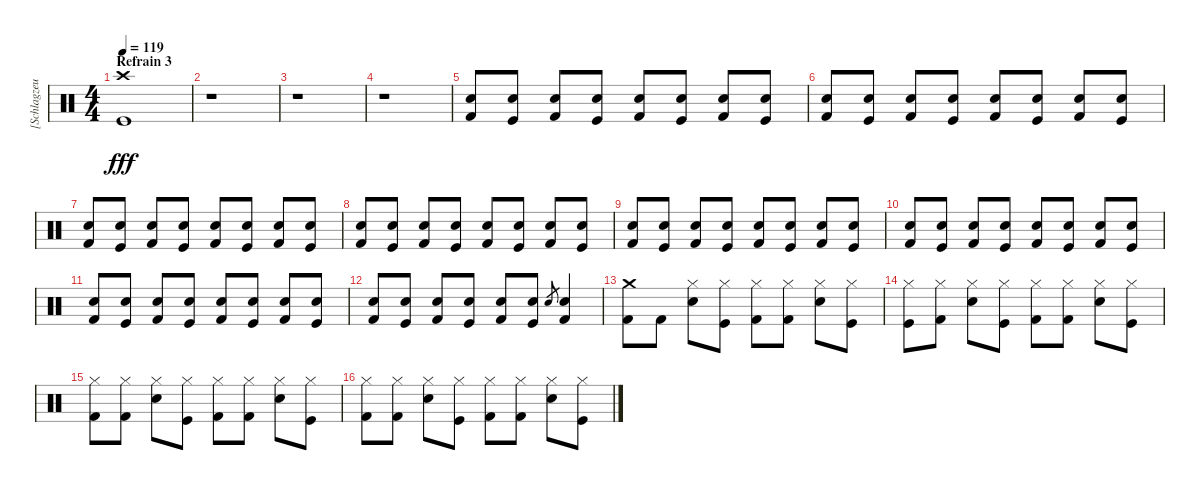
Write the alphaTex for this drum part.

\track ("[Schlagzeug]" "[Schlagzeu") {instrument percussion}
\staff {score}
\articulation defaults
\ts (4 4)
\section ("" "Refrain 3")
\tempo 119
\clef neutral
\ks c
("Crash high (hit)" "Kick (hit)").1{dy fff} |
r.1 |
r.1 |
r.1 |
("Electric Snare (hit)" "Kick (hit) 2").8{volume 2} ("Electric Snare (hit)" "Kick (hit)").8{volume 8} ("Electric Snare (hit)" "Kick (hit) 2").8 ("Electric Snare (hit)" "Kick (hit)").8 ("Electric Snare (hit)" "Kick (hit) 2").8 ("Electric Snare (hit)" "Kick (hit)").8 ("Electric Snare (hit)" "Kick (hit) 2").8 ("Electric Snare (hit)" "Kick (hit)").8 |
("Electric Snare (hit)" "Kick (hit) 2").8 ("Electric Snare (hit)" "Kick (hit)").8 ("Electric Snare (hit)" "Kick (hit) 2").8 ("Electric Snare (hit)" "Kick (hit)").8 ("Electric Snare (hit)" "Kick (hit) 2").8 ("Electric Snare (hit)" "Kick (hit)").8 ("Electric Snare (hit)" "Kick (hit) 2").8 ("Electric Snare (hit)" "Kick (hit)").8 |
("Electric Snare (hit)" "Kick (hit) 2").8 ("Electric Snare (hit)" "Kick (hit)").8 ("Electric Snare (hit)" "Kick (hit) 2").8 ("Electric Snare (hit)" "Kick (hit)").8 ("Electric Snare (hit)" "Kick (hit) 2").8 ("Electric Snare (hit)" "Kick (hit)").8 ("Electric Snare (hit)" "Kick (hit) 2").8 ("Electric Snare (hit)" "Kick (hit)").8 |
("Electric Snare (hit)" "Kick (hit) 2").8 ("Electric Snare (hit)" "Kick (hit)").8 ("Electric Snare (hit)" "Kick (hit) 2").8 ("Electric Snare (hit)" "Kick (hit)").8 ("Electric Snare (hit)" "Kick (hit) 2").8 ("Electric Snare (hit)" "Kick (hit)").8 ("Electric Snare (hit)" "Kick (hit) 2").8 ("Electric Snare (hit)" "Kick (hit)").8 |
("Electric Snare (hit)" "Kick (hit) 2").8{volume 16} ("Electric Snare (hit)" "Kick (hit)").8 ("Electric Snare (hit)" "Kick (hit) 2").8 ("Electric Snare (hit)" "Kick (hit)").8 ("Electric Snare (hit)" "Kick (hit) 2").8 ("Electric Snare (hit)" "Kick (hit)").8 ("Electric Snare (hit)" "Kick (hit) 2").8 ("Electric Snare (hit)" "Kick (hit)").8 |
("Electric Snare (hit)" "Kick (hit) 2").8 ("Electric Snare (hit)" "Kick (hit)").8 ("Electric Snare (hit)" "Kick (hit) 2").8 ("Electric Snare (hit)" "Kick (hit)").8 ("Electric Snare (hit)" "Kick (hit) 2").8 ("Electric Snare (hit)" "Kick (hit)").8 ("Electric Snare (hit)" "Kick (hit) 2").8 ("Electric Snare (hit)" "Kick (hit)").8 |
("Electric Snare (hit)" "Kick (hit) 2").8 ("Electric Snare (hit)" "Kick (hit)").8 ("Electric Snare (hit)" "Kick (hit) 2").8 ("Electric Snare (hit)" "Kick (hit)").8 ("Electric Snare (hit)" "Kick (hit) 2").8 ("Electric Snare (hit)" "Kick (hit)").8 ("Electric Snare (hit)" "Kick (hit) 2").8 ("Electric Snare (hit)" "Kick (hit)").8 |
("Electric Snare (hit)" "Kick (hit) 2").8 ("Electric Snare (hit)" "Kick (hit)").8 ("Electric Snare (hit)" "Kick (hit) 2").8 ("Electric Snare (hit)" "Kick (hit)").8 ("Electric Snare (hit)" "Kick (hit) 2").8 ("Electric Snare (hit)" "Kick (hit)").8 "Electric Snare (hit)".8{gr} ("Electric Snare (hit)" "Kick (hit) 2").4 |
("Crash medium (hit)" "Kick (hit) 2").8 "Kick (hit) 2".8 ("Hi-Hat (closed)" "Electric Snare (hit)").8 ("Hi-Hat (closed)" "Kick (hit)").8 ("Hi-Hat (closed)" "Kick (hit) 2").8 ("Hi-Hat (closed)" "Kick (hit) 2").8 ("Hi-Hat (closed)" "Electric Snare (hit)").8 ("Hi-Hat (closed)" "Kick (hit)").8 |
("Hi-Hat (closed)" "Kick (hit)").8 ("Hi-Hat (closed)" "Kick (hit) 2").8 ("Hi-Hat (closed)" "Electric Snare (hit)").8 ("Hi-Hat (closed)" "Kick (hit)").8 ("Hi-Hat (closed)" "Kick (hit) 2").8 ("Hi-Hat (closed)" "Kick (hit) 2").8 ("Hi-Hat (closed)" "Electric Snare (hit)").8 ("Hi-Hat (closed)" "Kick (hit)").8 |
("Hi-Hat (closed)" "Kick (hit) 2").8 ("Hi-Hat (closed)" "Kick (hit) 2").8 ("Hi-Hat (closed)" "Electric Snare (hit)").8 ("Hi-Hat (closed)" "Kick (hit)").8 ("Hi-Hat (closed)" "Kick (hit) 2").8 ("Hi-Hat (closed)" "Kick (hit) 2").8 ("Hi-Hat (closed)" "Electric Snare (hit)").8 ("Hi-Hat (closed)" "Kick (hit)").8 |
("Hi-Hat (closed)" "Kick (hit) 2").8 ("Hi-Hat (closed)" "Kick (hit) 2").8 ("Hi-Hat (closed)" "Electric Snare (hit)").8 ("Hi-Hat (closed)" "Kick (hit)").8 ("Hi-Hat (closed)" "Kick (hit) 2").8 ("Hi-Hat (closed)" "Kick (hit) 2").8 ("Hi-Hat (closed)" "Electric Snare (hit)").8 ("Hi-Hat (closed)" "Kick (hit)").8
